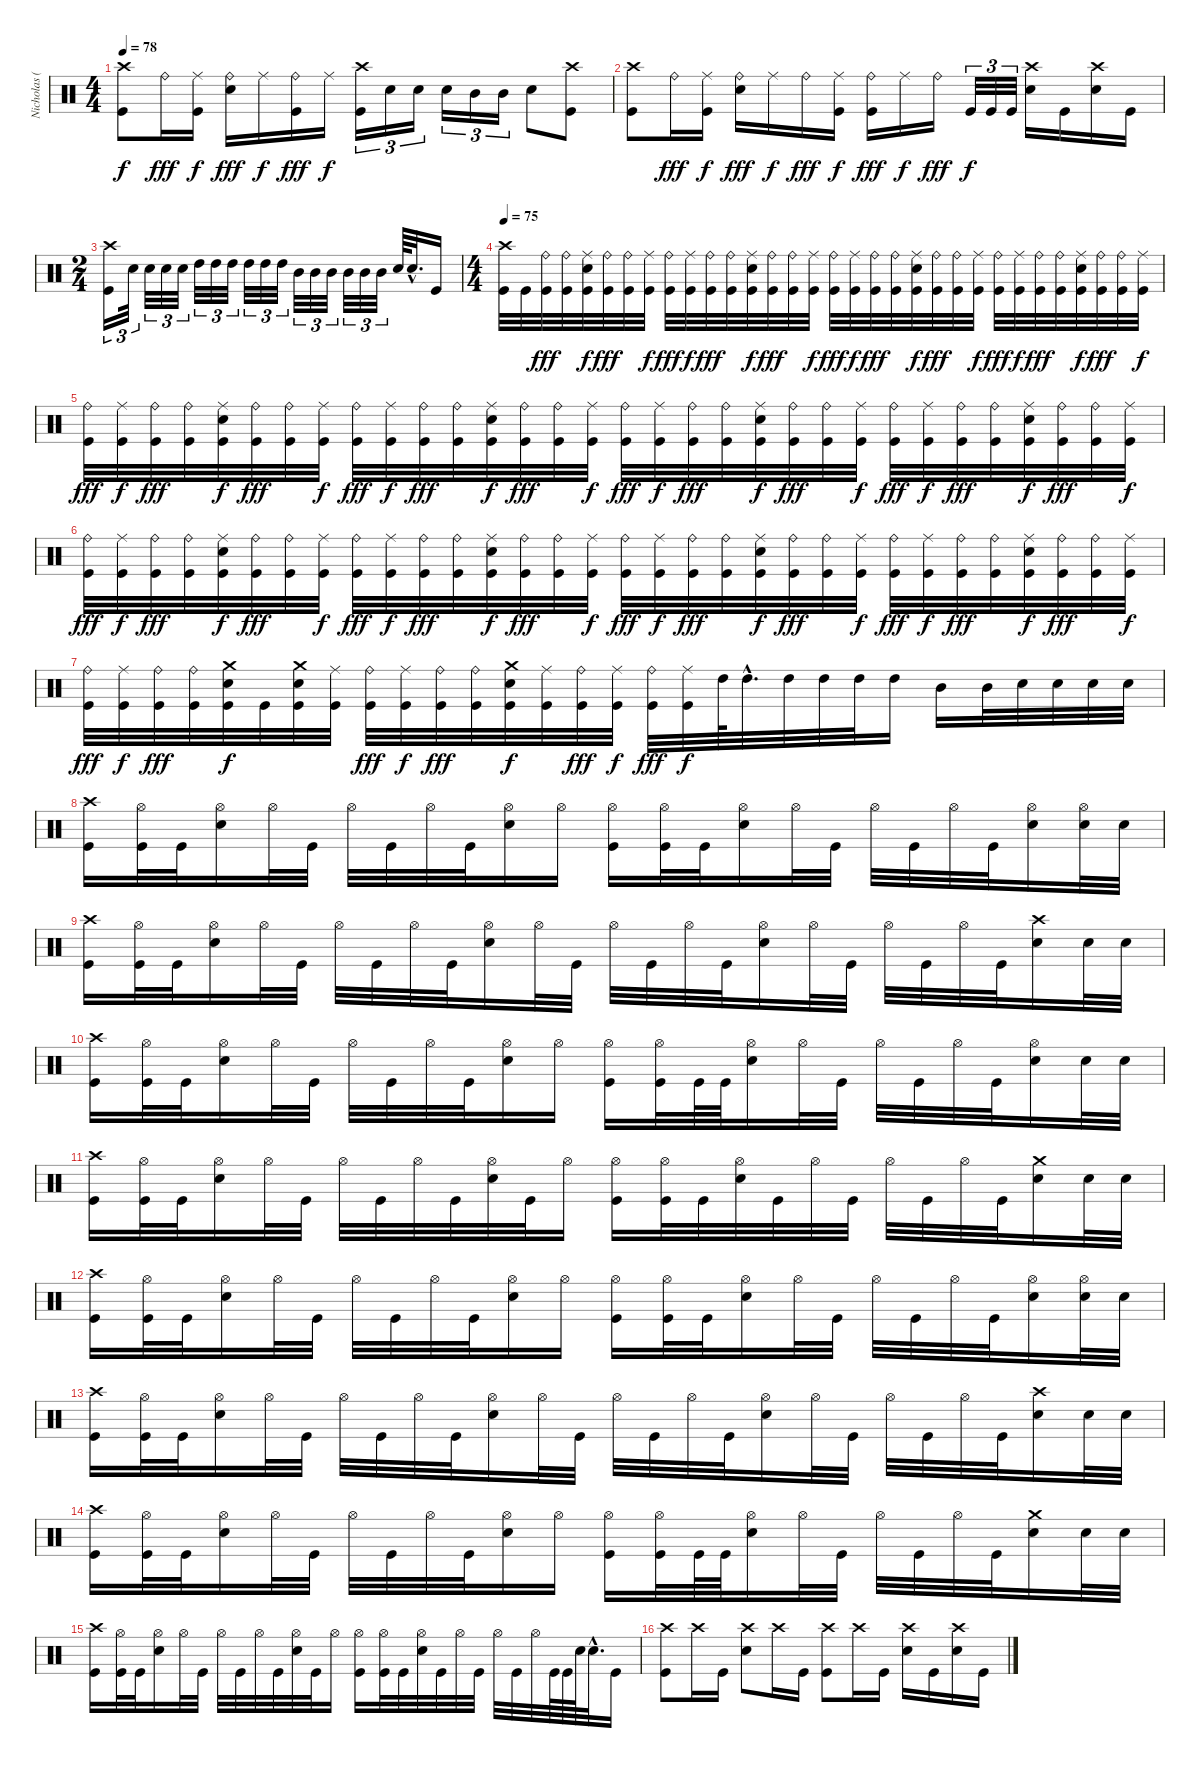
\track ("Nicholas (Drums)" "Nicholas (") {instrument percussion}
\staff {score}
\articulation defaults
\ts (4 4)
\tempo 78
\clef neutral
\ks c
("Crash high (hit)" "Kick (hit)").8{dy f} "Ride (bell)".16{dy fff} ("Ride (middle)" "Kick (hit)").16{dy f} ("Ride (bell)" "Electric Snare (hit)").16{dy fff} "Ride (middle)".16{dy f} ("Ride (bell)" "Kick (hit)").16{dy fff} "Ride (middle)".16{dy f} ("Crash high (hit)" "Kick (hit)").16{tu (3 2)} "Electric Snare (hit)".16{tu (3 2)} "Electric Snare (hit)".16{tu (3 2)} "Electric Snare (hit)".16{tu (3 2)} "Mid Tom (hit)".16{tu (3 2)} "Mid Tom (hit)".16{tu (3 2)} "Electric Snare (hit)".8 ("Crash high (hit)" "Kick (hit)").8 |
("Crash high (hit)" "Kick (hit)").8 "Ride (bell)".16{dy fff} ("Ride (middle)" "Kick (hit)").16{dy f} ("Ride (bell)" "Electric Snare (hit)").16{dy fff} "Ride (middle)".16{dy f} "Ride (bell)".16{dy fff} ("Ride (middle)" "Kick (hit)").16{dy f} ("Ride (bell)" "Kick (hit)").16{dy fff} "Ride (middle)".16{dy f} "Ride (bell)".16{dy fff} "Kick (hit)".32{tu (3 2) dy f} "Kick (hit)".32{tu (3 2)} "Kick (hit)".32{tu (3 2)} ("Crash high (hit)" "Electric Snare (hit)").16 "Kick (hit)".16 ("Crash high (hit)" "Electric Snare (hit)").16 "Kick (hit)".16 |
\ts (2 4)
("Crash high (hit)" "Kick (hit)").16{tu (3 2)} "Electric Snare (hit)".32{tu (3 2)} "Electric Snare (hit)".32{tu (3 2)} "Electric Snare (hit)".32{tu (3 2)} "Electric Snare (hit)".32{tu (3 2)} "High Tom (hit)".32{tu (3 2)} "High Tom (hit)".32{tu (3 2)} "High Tom (hit)".32{tu (3 2)} "High Tom (hit)".32{tu (3 2)} "High Tom (hit)".32{tu (3 2)} "High Tom (hit)".32{tu (3 2)} "Mid Tom (hit)".32{tu (3 2)} "Mid Tom (hit)".32{tu (3 2)} "Mid Tom (hit)".32{tu (3 2)} "Mid Tom (hit)".32{tu (3 2)} "Mid Tom (hit)".32{tu (3 2)} "Mid Tom (hit)".32{tu (3 2)} "Electric Snare (hit)".64 "Electric Snare (hit)"{hac}.32{d} "Kick (hit)".16 |
\ts (4 4)
\tempo 75
("Crash high (hit)" "Kick (hit)").32 "Kick (hit)".32 ("Ride (bell)" "Kick (hit)").32{dy fff} ("Ride (bell)" "Kick (hit)").32 ("Ride (middle)" "Electric Snare (hit)" "Kick (hit)").32{dy f} ("Ride (bell)" "Kick (hit)").32{dy fff} ("Ride (bell)" "Kick (hit)").32 ("Ride (middle)" "Kick (hit)").32{dy f} ("Ride (bell)" "Kick (hit)").32{dy fff} ("Ride (middle)" "Kick (hit)").32{dy f} ("Ride (bell)" "Kick (hit)").32{dy fff} ("Ride (bell)" "Kick (hit)").32 ("Ride (middle)" "Electric Snare (hit)" "Kick (hit)").32{dy f} ("Ride (bell)" "Kick (hit)").32{dy fff} ("Ride (bell)" "Kick (hit)").32 ("Ride (middle)" "Kick (hit)").32{dy f} ("Ride (bell)" "Kick (hit)").32{dy fff} ("Ride (middle)" "Kick (hit)").32{dy f} ("Ride (bell)" "Kick (hit)").32{dy fff} ("Ride (bell)" "Kick (hit)").32 ("Ride (middle)" "Electric Snare (hit)" "Kick (hit)").32{dy f} ("Ride (bell)" "Kick (hit)").32{dy fff} ("Ride (bell)" "Kick (hit)").32 ("Ride (middle)" "Kick (hit)").32{dy f} ("Ride (bell)" "Kick (hit)").32{dy fff} ("Ride (middle)" "Kick (hit)").32{dy f} ("Ride (bell)" "Kick (hit)").32{dy fff} ("Ride (bell)" "Kick (hit)").32 ("Ride (middle)" "Electric Snare (hit)" "Kick (hit)").32{dy f} ("Ride (bell)" "Kick (hit)").32{dy fff} ("Ride (bell)" "Kick (hit)").32 ("Ride (middle)" "Kick (hit)").32{dy f} |
("Ride (bell)" "Kick (hit)").32{dy fff} ("Ride (middle)" "Kick (hit)").32{dy f} ("Ride (bell)" "Kick (hit)").32{dy fff} ("Ride (bell)" "Kick (hit)").32 ("Ride (middle)" "Electric Snare (hit)" "Kick (hit)").32{dy f} ("Ride (bell)" "Kick (hit)").32{dy fff} ("Ride (bell)" "Kick (hit)").32 ("Ride (middle)" "Kick (hit)").32{dy f} ("Ride (bell)" "Kick (hit)").32{dy fff} ("Ride (middle)" "Kick (hit)").32{dy f} ("Ride (bell)" "Kick (hit)").32{dy fff} ("Ride (bell)" "Kick (hit)").32 ("Ride (middle)" "Electric Snare (hit)" "Kick (hit)").32{dy f} ("Ride (bell)" "Kick (hit)").32{dy fff} ("Ride (bell)" "Kick (hit)").32 ("Ride (middle)" "Kick (hit)").32{dy f} ("Ride (bell)" "Kick (hit)").32{dy fff} ("Ride (middle)" "Kick (hit)").32{dy f} ("Ride (bell)" "Kick (hit)").32{dy fff} ("Ride (bell)" "Kick (hit)").32 ("Ride (middle)" "Electric Snare (hit)" "Kick (hit)").32{dy f} ("Ride (bell)" "Kick (hit)").32{dy fff} ("Ride (bell)" "Kick (hit)").32 ("Ride (middle)" "Kick (hit)").32{dy f} ("Ride (bell)" "Kick (hit)").32{dy fff} ("Ride (middle)" "Kick (hit)").32{dy f} ("Ride (bell)" "Kick (hit)").32{dy fff} ("Ride (bell)" "Kick (hit)").32 ("Ride (middle)" "Electric Snare (hit)" "Kick (hit)").32{dy f} ("Ride (bell)" "Kick (hit)").32{dy fff} ("Ride (bell)" "Kick (hit)").32 ("Ride (middle)" "Kick (hit)").32{dy f} |
("Ride (bell)" "Kick (hit)").32{dy fff} ("Ride (middle)" "Kick (hit)").32{dy f} ("Ride (bell)" "Kick (hit)").32{dy fff} ("Ride (bell)" "Kick (hit)").32 ("Ride (middle)" "Electric Snare (hit)" "Kick (hit)").32{dy f} ("Ride (bell)" "Kick (hit)").32{dy fff} ("Ride (bell)" "Kick (hit)").32 ("Ride (middle)" "Kick (hit)").32{dy f} ("Ride (bell)" "Kick (hit)").32{dy fff} ("Ride (middle)" "Kick (hit)").32{dy f} ("Ride (bell)" "Kick (hit)").32{dy fff} ("Ride (bell)" "Kick (hit)").32 ("Ride (middle)" "Electric Snare (hit)" "Kick (hit)").32{dy f} ("Ride (bell)" "Kick (hit)").32{dy fff} ("Ride (bell)" "Kick (hit)").32 ("Ride (middle)" "Kick (hit)").32{dy f} ("Ride (bell)" "Kick (hit)").32{dy fff} ("Ride (middle)" "Kick (hit)").32{dy f} ("Ride (bell)" "Kick (hit)").32{dy fff} ("Ride (bell)" "Kick (hit)").32 ("Ride (middle)" "Electric Snare (hit)" "Kick (hit)").32{dy f} ("Ride (bell)" "Kick (hit)").32{dy fff} ("Ride (bell)" "Kick (hit)").32 ("Ride (middle)" "Kick (hit)").32{dy f} ("Ride (bell)" "Kick (hit)").32{dy fff} ("Ride (middle)" "Kick (hit)").32{dy f} ("Ride (bell)" "Kick (hit)").32{dy fff} ("Ride (bell)" "Kick (hit)").32 ("Ride (middle)" "Electric Snare (hit)" "Kick (hit)").32{dy f} ("Ride (bell)" "Kick (hit)").32{dy fff} ("Ride (bell)" "Kick (hit)").32 ("Ride (middle)" "Kick (hit)").32{dy f} |
("Ride (bell)" "Kick (hit)").32{dy fff} ("Ride (middle)" "Kick (hit)").32{dy f} ("Ride (bell)" "Kick (hit)").32{dy fff} ("Ride (bell)" "Kick (hit)").32 ("Crash medium (hit)" "Electric Snare (hit)" "Kick (hit)").32{dy f} "Kick (hit)".32 ("Crash medium (hit)" "Electric Snare (hit)" "Kick (hit)").32 ("Ride (middle)" "Kick (hit)").32 ("Ride (bell)" "Kick (hit)").32{dy fff} ("Ride (middle)" "Kick (hit)").32{dy f} ("Ride (bell)" "Kick (hit)").32{dy fff} ("Ride (bell)" "Kick (hit)").32 ("Crash medium (hit)" "Electric Snare (hit)" "Kick (hit)").32{dy f} ("Ride (middle)" "Kick (hit)").32 ("Ride (bell)" "Kick (hit)").32{dy fff} ("Ride (middle)" "Kick (hit)").32{dy f} ("Ride (bell)" "Kick (hit)").32{dy fff} ("Ride (middle)" "Kick (hit)").32{dy f} "High Tom (hit)".64 "High Tom (hit)"{hac}.32{d} "High Tom (hit)".32 "High Tom (hit)".32 "High Tom (hit)".32 "High Tom (hit)".16 "Mid Tom (hit)".16 "Mid Tom (hit)".32 "Electric Snare (hit)".32 "Electric Snare (hit)".32 "Electric Snare (hit)".32 "Electric Snare (hit)".32 |
("Crash high (hit)" "Kick (hit)").16 ("Hi-Hat (open)" "Kick (hit)").32 "Kick (hit)".32 ("Hi-Hat (open)" "Electric Snare (hit)").16 "Hi-Hat (open)".32 "Kick (hit)".32 "Hi-Hat (open)".32 "Kick (hit)".32 "Hi-Hat (open)".32 "Kick (hit)".32 ("Hi-Hat (open)" "Electric Snare (hit)").16 "Hi-Hat (open)".16 ("Hi-Hat (open)" "Kick (hit)").16 ("Hi-Hat (open)" "Kick (hit)").32 "Kick (hit)".32 ("Hi-Hat (open)" "Electric Snare (hit)").16 "Hi-Hat (open)".32 "Kick (hit)".32 "Hi-Hat (open)".32 "Kick (hit)".32 "Hi-Hat (open)".32 "Kick (hit)".32 ("Hi-Hat (open)" "Electric Snare (hit)").16 ("Hi-Hat (open)" "Electric Snare (hit)").32 "Electric Snare (hit)".32 |
("Crash high (hit)" "Kick (hit)").16 ("Hi-Hat (open)" "Kick (hit)").32 "Kick (hit)".32 ("Hi-Hat (open)" "Electric Snare (hit)").16 "Hi-Hat (open)".32 "Kick (hit)".32 "Hi-Hat (open)".32 "Kick (hit)".32 "Hi-Hat (open)".32 "Kick (hit)".32 ("Hi-Hat (open)" "Electric Snare (hit)").16 "Hi-Hat (open)".32 "Kick (hit)".32 "Hi-Hat (open)".32 "Kick (hit)".32 "Hi-Hat (open)".32 "Kick (hit)".32 ("Hi-Hat (open)" "Electric Snare (hit)").16 "Hi-Hat (open)".32 "Kick (hit)".32 "Hi-Hat (open)".32 "Kick (hit)".32 "Hi-Hat (open)".32 "Kick (hit)".32 ("Crash high (hit)" "Electric Snare (hit)").16 "Electric Snare (hit)".32 "Electric Snare (hit)".32 |
("Crash high (hit)" "Kick (hit)").16 ("Hi-Hat (open)" "Kick (hit)").32 "Kick (hit)".32 ("Hi-Hat (open)" "Electric Snare (hit)").16 "Hi-Hat (open)".32 "Kick (hit)".32 "Hi-Hat (open)".32 "Kick (hit)".32 "Hi-Hat (open)".32 "Kick (hit)".32 ("Hi-Hat (open)" "Electric Snare (hit)").16 "Hi-Hat (open)".16 ("Hi-Hat (open)" "Kick (hit)").16 ("Hi-Hat (open)" "Kick (hit)").32 "Kick (hit)".64 "Kick (hit)".64 ("Hi-Hat (open)" "Electric Snare (hit)").16 "Hi-Hat (open)".32 "Kick (hit)".32 "Hi-Hat (open)".32 "Kick (hit)".32 "Hi-Hat (open)".32 "Kick (hit)".32 ("Hi-Hat (open)" "Electric Snare (hit)").16 "Electric Snare (hit)".32 "Electric Snare (hit)".32 |
("Crash high (hit)" "Kick (hit)").16 ("Hi-Hat (open)" "Kick (hit)").32 "Kick (hit)".32 ("Hi-Hat (open)" "Electric Snare (hit)").16 "Hi-Hat (open)".32 "Kick (hit)".32 "Hi-Hat (open)".32 "Kick (hit)".32 "Hi-Hat (open)".32 "Kick (hit)".32 ("Hi-Hat (open)" "Electric Snare (hit)").32 "Kick (hit)".32 "Hi-Hat (open)".16 ("Hi-Hat (open)" "Kick (hit)").16 ("Hi-Hat (open)" "Kick (hit)").32 "Kick (hit)".32 ("Hi-Hat (open)" "Electric Snare (hit)").32 "Kick (hit)".32 "Hi-Hat (open)".32 "Kick (hit)".32 "Hi-Hat (open)".32 "Kick (hit)".32 "Hi-Hat (open)".32 "Kick (hit)".32 ("Crash medium (hit)" "Electric Snare (hit)").16 "Electric Snare (hit)".32 "Electric Snare (hit)".32 |
("Crash high (hit)" "Kick (hit)").16 ("Hi-Hat (open)" "Kick (hit)").32 "Kick (hit)".32 ("Hi-Hat (open)" "Electric Snare (hit)").16 "Hi-Hat (open)".32 "Kick (hit)".32 "Hi-Hat (open)".32 "Kick (hit)".32 "Hi-Hat (open)".32 "Kick (hit)".32 ("Hi-Hat (open)" "Electric Snare (hit)").16 "Hi-Hat (open)".16 ("Hi-Hat (open)" "Kick (hit)").16 ("Hi-Hat (open)" "Kick (hit)").32 "Kick (hit)".32 ("Hi-Hat (open)" "Electric Snare (hit)").16 "Hi-Hat (open)".32 "Kick (hit)".32 "Hi-Hat (open)".32 "Kick (hit)".32 "Hi-Hat (open)".32 "Kick (hit)".32 ("Hi-Hat (open)" "Electric Snare (hit)").16 ("Hi-Hat (open)" "Electric Snare (hit)").32 "Electric Snare (hit)".32 |
("Crash high (hit)" "Kick (hit)").16 ("Hi-Hat (open)" "Kick (hit)").32 "Kick (hit)".32 ("Hi-Hat (open)" "Electric Snare (hit)").16 "Hi-Hat (open)".32 "Kick (hit)".32 "Hi-Hat (open)".32 "Kick (hit)".32 "Hi-Hat (open)".32 "Kick (hit)".32 ("Hi-Hat (open)" "Electric Snare (hit)").16 "Hi-Hat (open)".32 "Kick (hit)".32 "Hi-Hat (open)".32 "Kick (hit)".32 "Hi-Hat (open)".32 "Kick (hit)".32 ("Hi-Hat (open)" "Electric Snare (hit)").16 "Hi-Hat (open)".32 "Kick (hit)".32 "Hi-Hat (open)".32 "Kick (hit)".32 "Hi-Hat (open)".32 "Kick (hit)".32 ("Crash high (hit)" "Electric Snare (hit)").16 "Electric Snare (hit)".32 "Electric Snare (hit)".32 |
("Crash high (hit)" "Kick (hit)").16 ("Hi-Hat (open)" "Kick (hit)").32 "Kick (hit)".32 ("Hi-Hat (open)" "Electric Snare (hit)").16 "Hi-Hat (open)".32 "Kick (hit)".32 "Hi-Hat (open)".32 "Kick (hit)".32 "Hi-Hat (open)".32 "Kick (hit)".32 ("Hi-Hat (open)" "Electric Snare (hit)").16 "Hi-Hat (open)".16 ("Hi-Hat (open)" "Kick (hit)").16 ("Hi-Hat (open)" "Kick (hit)").32 "Kick (hit)".64 "Kick (hit)".64 ("Hi-Hat (open)" "Electric Snare (hit)").16 "Hi-Hat (open)".32 "Kick (hit)".32 "Hi-Hat (open)".32 "Kick (hit)".32 "Hi-Hat (open)".32 "Kick (hit)".32 ("Crash medium (hit)" "Electric Snare (hit)").16 "Electric Snare (hit)".32 "Electric Snare (hit)".32 |
("Crash high (hit)" "Kick (hit)").16 ("Hi-Hat (open)" "Kick (hit)").32 "Kick (hit)".32 ("Hi-Hat (open)" "Electric Snare (hit)").16 "Hi-Hat (open)".32 "Kick (hit)".32 "Hi-Hat (open)".32 "Kick (hit)".32 "Hi-Hat (open)".32 "Kick (hit)".32 ("Hi-Hat (open)" "Electric Snare (hit)").32 "Kick (hit)".32 "Hi-Hat (open)".16 ("Hi-Hat (open)" "Kick (hit)").16 ("Hi-Hat (open)" "Kick (hit)").32 "Kick (hit)".32 ("Hi-Hat (open)" "Electric Snare (hit)").32 "Kick (hit)".32 "Hi-Hat (open)".32 "Kick (hit)".32 "Hi-Hat (open)".32 "Kick (hit)".32 "Hi-Hat (open)".32 "Kick (hit)".64 "Kick (hit)".64 "Electric Snare (hit)".64 "Electric Snare (hit)"{hac}.32{d} "Kick (hit)".16 |
("Crash high (hit)" "Kick (hit)").8 "Crash high (hit)".16 "Kick (hit)".16 ("Crash high (hit)" "Electric Snare (hit)").8 "Crash high (hit)".16 "Kick (hit)".16 ("Crash high (hit)" "Kick (hit)").8 "Crash high (hit)".16 "Kick (hit)".16 ("Crash high (hit)" "Electric Snare (hit)").16 "Kick (hit)".16 ("Crash high (hit)" "Electric Snare (hit)").16 "Kick (hit)".16
